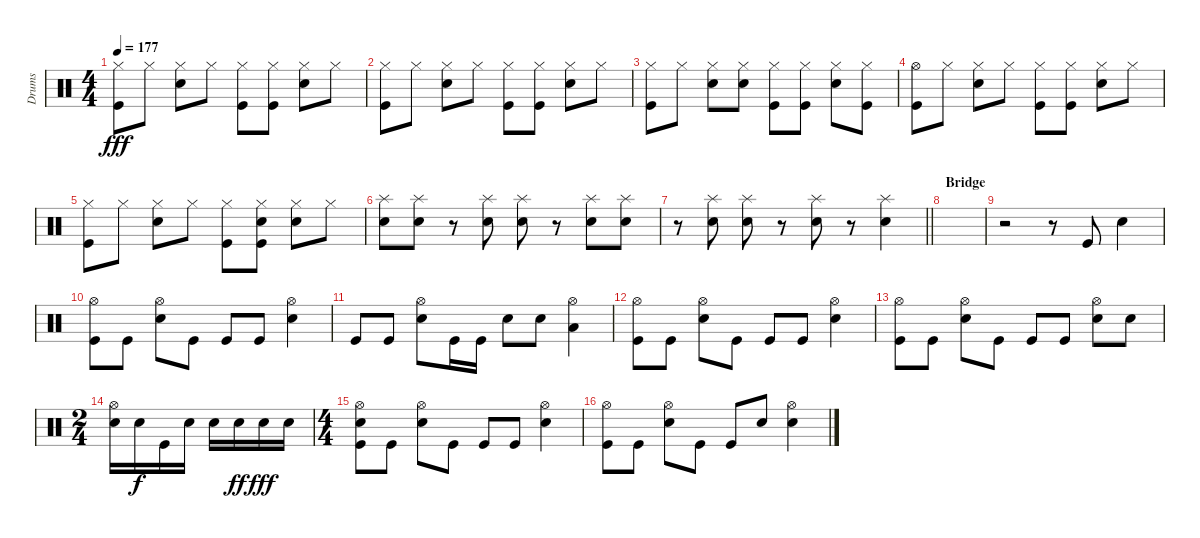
\track ("Drums" "Drums") {instrument percussion}
\staff {score}
\articulation defaults
\ts (4 4)
\tempo 177
\clef neutral
\ks c
("Hi-Hat (closed)" "Kick (hit)").8{dy fff} "Hi-Hat (closed)".8 ("Hi-Hat (closed)" "Snare (hit) 2").8 "Hi-Hat (closed)".8 ("Hi-Hat (closed)" "Kick (hit)").8 ("Hi-Hat (closed)" "Kick (hit)").8 ("Hi-Hat (closed)" "Snare (hit) 2").8 "Hi-Hat (closed)".8 |
("Hi-Hat (closed)" "Kick (hit)").8 "Hi-Hat (closed)".8 ("Hi-Hat (closed)" "Snare (hit) 2").8 "Hi-Hat (closed)".8 ("Hi-Hat (closed)" "Kick (hit)").8 ("Hi-Hat (closed)" "Kick (hit)").8 ("Hi-Hat (closed)" "Snare (hit) 2").8 "Hi-Hat (closed)".8 |
("Hi-Hat (closed)" "Kick (hit)").8 "Hi-Hat (closed)".8 ("Hi-Hat (closed)" "Snare (hit) 2").8 ("Hi-Hat (closed)" "Snare (hit) 2").8 ("Hi-Hat (closed)" "Kick (hit)").8 ("Hi-Hat (closed)" "Kick (hit)").8 ("Hi-Hat (closed)" "Snare (hit) 2").8 ("Hi-Hat (closed)" "Kick (hit)").8 |
("Hi-Hat (open)" "Kick (hit)").8 "Hi-Hat (closed)".8 ("Hi-Hat (closed)" "Snare (hit) 2").8 "Hi-Hat (closed)".8 ("Hi-Hat (closed)" "Kick (hit)").8 ("Hi-Hat (closed)" "Kick (hit)").8 ("Hi-Hat (closed)" "Snare (hit) 2").8 "Hi-Hat (closed)".8 |
("Hi-Hat (closed)" "Kick (hit)").8 "Hi-Hat (closed)".8 ("Hi-Hat (closed)" "Snare (hit) 2").8 "Hi-Hat (closed)".8 ("Hi-Hat (closed)" "Kick (hit)").8 ("Snare (hit) 2" "Hi-Hat (closed)" "Kick (hit)").8 ("Hi-Hat (closed)" "Snare (hit) 2").8 "Hi-Hat (closed)".8 |
("Splash (hit)" "Snare (hit) 2").8 ("Splash (hit)" "Snare (hit) 2").8 r.8 ("Splash (hit)" "Snare (hit) 2").8 ("Splash (hit)" "Snare (hit) 2").8 r.8 ("Splash (hit)" "Snare (hit) 2").8 ("Splash (hit)" "Snare (hit) 2").8 |
\barLineRight lightlight
r.8 ("Splash (hit)" "Snare (hit) 2").8 ("Splash (hit)" "Snare (hit) 2").8 r.8 ("Splash (hit)" "Snare (hit) 2").8 r.8 ("Splash (hit)" "Snare (hit) 2").4 |
\section ("" "Bridge")
|
r.2 r.8 "Kick (hit)".8 "Snare (hit) 2".4 |
("Hi-Hat (open)" "Kick (hit)").8 "Kick (hit)".8 ("Hi-Hat (open)" "Snare (hit) 2").8 "Kick (hit)".8 "Kick (hit)".8 "Kick (hit)".8 ("Hi-Hat (open)" "Snare (hit) 2").4 |
"Kick (hit)".8 "Kick (hit)".8 ("Hi-Hat (open)" "Snare (hit) 2").8 "Kick (hit)".16 "Kick (hit)".16 "Snare (hit) 2".8 "Snare (hit) 2".8 ("Low Tom (hit)" "Hi-Hat (open)").4 |
("Hi-Hat (open)" "Kick (hit)").8 "Kick (hit)".8 ("Hi-Hat (open)" "Snare (hit) 2").8 "Kick (hit)".8 "Kick (hit)".8 "Kick (hit)".8 ("Hi-Hat (open)" "Snare (hit) 2").4 |
("Hi-Hat (open)" "Kick (hit)").8 "Kick (hit)".8 ("Hi-Hat (open)" "Snare (hit) 2").8 "Kick (hit)".8 "Kick (hit)".8 "Kick (hit)".8 ("Hi-Hat (open)" "Snare (hit) 2").8 "Snare (hit) 2".8 |
\ts (2 4)
("Hi-Hat (open)" "Snare (hit) 2").16 "Snare (hit) 2".16{dy f} "Kick (hit)".16 "Snare (hit) 2".16 "Snare (hit) 2".16 "Snare (hit) 2".16{dy ff} "Snare (hit) 2".16{dy fff} "Snare (hit) 2".16 |
\ts (4 4)
("Hi-Hat (open)" "Snare (hit) 2" "Kick (hit)").8 "Kick (hit)".8 ("Hi-Hat (open)" "Snare (hit) 2").8 "Kick (hit)".8 "Kick (hit)".8 "Kick (hit)".8 ("Hi-Hat (open)" "Snare (hit) 2").4 |
("Hi-Hat (open)" "Kick (hit)").8 "Kick (hit)".8 ("Hi-Hat (open)" "Snare (hit) 2").8 "Kick (hit)".8 "Kick (hit)".8 "Snare (hit) 2".8 ("Hi-Hat (open)" "Snare (hit) 2").4
